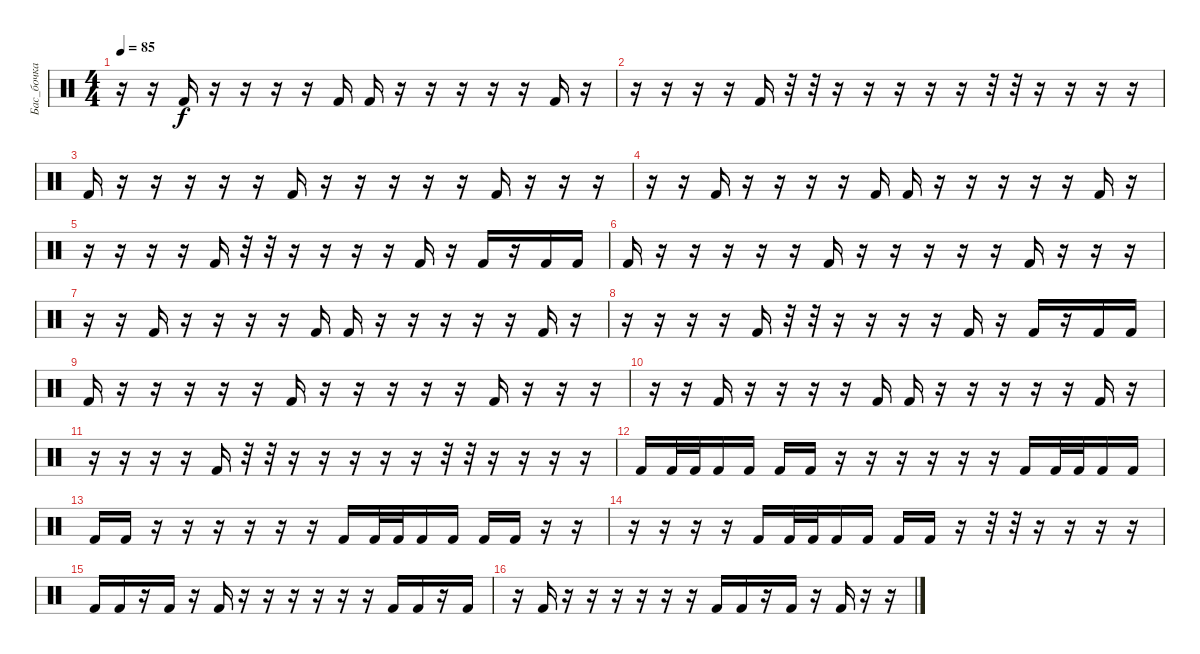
\track ("Бас_бочка" "Бас_бочка") {instrument percussion}
\staff {score}
\articulation defaults
\ts (4 4)
\tempo 85
\clef neutral
\ks c
r.16{dy f} r.16 "Kick (hit) 2".16 r.16 r.16 r.16 r.16 "Kick (hit) 2".16 "Kick (hit) 2".16 r.16 r.16 r.16 r.16 r.16 "Kick (hit) 2".16 r.16 |
r.16 r.16 r.16 r.16 "Kick (hit) 2".16 r.32 r.32 r.16 r.16 r.16 r.16 r.16 r.32 r.32 r.16 r.16 r.16 r.16 |
"Kick (hit) 2".16 r.16 r.16 r.16 r.16 r.16 "Kick (hit) 2".16 r.16 r.16 r.16 r.16 r.16 "Kick (hit) 2".16 r.16 r.16 r.16 |
r.16 r.16 "Kick (hit) 2".16 r.16 r.16 r.16 r.16 "Kick (hit) 2".16 "Kick (hit) 2".16 r.16 r.16 r.16 r.16 r.16 "Kick (hit) 2".16 r.16 |
r.16 r.16 r.16 r.16 "Kick (hit) 2".16 r.32 r.32 r.16 r.16 r.16 r.16 "Kick (hit) 2".16 r.16 "Kick (hit) 2".16 r.16 "Kick (hit) 2".16 "Kick (hit) 2".16 |
"Kick (hit) 2".16 r.16 r.16 r.16 r.16 r.16 "Kick (hit) 2".16 r.16 r.16 r.16 r.16 r.16 "Kick (hit) 2".16 r.16 r.16 r.16 |
r.16 r.16 "Kick (hit) 2".16 r.16 r.16 r.16 r.16 "Kick (hit) 2".16 "Kick (hit) 2".16 r.16 r.16 r.16 r.16 r.16 "Kick (hit) 2".16 r.16 |
r.16 r.16 r.16 r.16 "Kick (hit) 2".16 r.32 r.32 r.16 r.16 r.16 r.16 "Kick (hit) 2".16 r.16 "Kick (hit) 2".16 r.16 "Kick (hit) 2".16 "Kick (hit) 2".16 |
"Kick (hit) 2".16 r.16 r.16 r.16 r.16 r.16 "Kick (hit) 2".16 r.16 r.16 r.16 r.16 r.16 "Kick (hit) 2".16 r.16 r.16 r.16 |
r.16 r.16 "Kick (hit) 2".16 r.16 r.16 r.16 r.16 "Kick (hit) 2".16 "Kick (hit) 2".16 r.16 r.16 r.16 r.16 r.16 "Kick (hit) 2".16 r.16 |
r.16 r.16 r.16 r.16 "Kick (hit) 2".16 r.32 r.32 r.16 r.16 r.16 r.16 r.16 r.32 r.32 r.16 r.16 r.16 r.16 |
"Kick (hit) 2".16 "Kick (hit) 2".32 "Kick (hit) 2".32 "Kick (hit) 2".16 "Kick (hit) 2".16 "Kick (hit) 2".16 "Kick (hit) 2".16 r.16 r.16 r.16 r.16 r.16 r.16 "Kick (hit) 2".16 "Kick (hit) 2".32 "Kick (hit) 2".32 "Kick (hit) 2".16 "Kick (hit) 2".16 |
"Kick (hit) 2".16 "Kick (hit) 2".16 r.16 r.16 r.16 r.16 r.16 r.16 "Kick (hit) 2".16 "Kick (hit) 2".32 "Kick (hit) 2".32 "Kick (hit) 2".16 "Kick (hit) 2".16 "Kick (hit) 2".16 "Kick (hit) 2".16 r.16 r.16 |
r.16 r.16 r.16 r.16 "Kick (hit) 2".16 "Kick (hit) 2".32 "Kick (hit) 2".32 "Kick (hit) 2".16 "Kick (hit) 2".16 "Kick (hit) 2".16 "Kick (hit) 2".16 r.16 r.32 r.32 r.16 r.16 r.16 r.16 |
"Kick (hit) 2".16 "Kick (hit) 2".16 r.16 "Kick (hit) 2".16 r.16 "Kick (hit) 2".16 r.16 r.16 r.16 r.16 r.16 r.16 "Kick (hit) 2".16 "Kick (hit) 2".16 r.16 "Kick (hit) 2".16 |
r.16 "Kick (hit) 2".16 r.16 r.16 r.16 r.16 r.16 r.16 "Kick (hit) 2".16 "Kick (hit) 2".16 r.16 "Kick (hit) 2".16 r.16 "Kick (hit) 2".16 r.16 r.16
